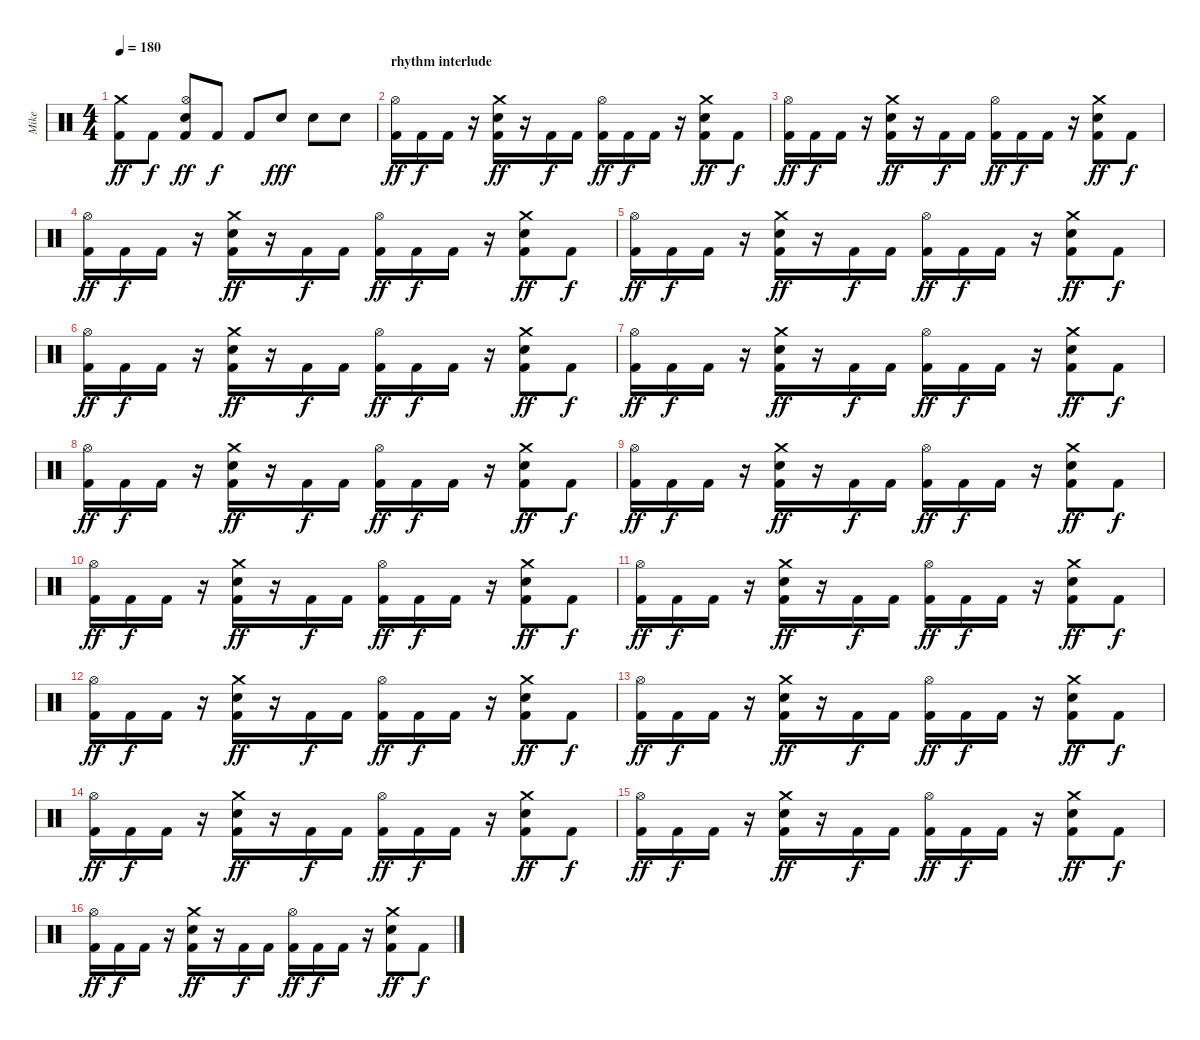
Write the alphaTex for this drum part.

\track ("Mike" "Mike") {instrument percussion}
\staff {score}
\articulation defaults
\ts (4 4)
\tempo 180
\clef neutral
\ks c
("Crash medium (hit)" "Kick (hit) 2").8{dy ff} "Kick (hit) 2".8{dy f} ("Hi-Hat (open)" "Snare (hit) 2" "Kick (hit) 2").8{dy ff} "Kick (hit) 2".8{dy f} "Kick (hit) 2".8 "Snare (hit) 2".8{dy fff} "Snare (hit) 2".8 "Snare (hit) 2".8 |
\section ("" "rhythm interlude")
("Hi-Hat (open)" "Kick (hit) 2").16{dy ff} "Kick (hit) 2".16{dy f} "Kick (hit) 2".16 r.16 ("Crash medium (hit)" "Snare (hit) 2" "Kick (hit) 2").16{dy ff} r.16 "Kick (hit) 2".16{dy f} "Kick (hit) 2".16 ("Hi-Hat (open)" "Kick (hit) 2").16{dy ff} "Kick (hit) 2".16{dy f} "Kick (hit) 2".16 r.16 ("Crash medium (hit)" "Snare (hit) 2" "Kick (hit) 2").8{dy ff} "Kick (hit) 2".8{dy f} |
("Hi-Hat (open)" "Kick (hit) 2").16{dy ff} "Kick (hit) 2".16{dy f} "Kick (hit) 2".16 r.16 ("Crash medium (hit)" "Snare (hit) 2" "Kick (hit) 2").16{dy ff} r.16 "Kick (hit) 2".16{dy f} "Kick (hit) 2".16 ("Hi-Hat (open)" "Kick (hit) 2").16{dy ff} "Kick (hit) 2".16{dy f} "Kick (hit) 2".16 r.16 ("Crash medium (hit)" "Snare (hit) 2" "Kick (hit) 2").8{dy ff} "Kick (hit) 2".8{dy f} |
("Hi-Hat (open)" "Kick (hit) 2").16{dy ff} "Kick (hit) 2".16{dy f} "Kick (hit) 2".16 r.16 ("Crash medium (hit)" "Snare (hit) 2" "Kick (hit) 2").16{dy ff} r.16 "Kick (hit) 2".16{dy f} "Kick (hit) 2".16 ("Hi-Hat (open)" "Kick (hit) 2").16{dy ff} "Kick (hit) 2".16{dy f} "Kick (hit) 2".16 r.16 ("Crash medium (hit)" "Snare (hit) 2" "Kick (hit) 2").8{dy ff} "Kick (hit) 2".8{dy f} |
("Hi-Hat (open)" "Kick (hit) 2").16{dy ff} "Kick (hit) 2".16{dy f} "Kick (hit) 2".16 r.16 ("Crash medium (hit)" "Snare (hit) 2" "Kick (hit) 2").16{dy ff} r.16 "Kick (hit) 2".16{dy f} "Kick (hit) 2".16 ("Hi-Hat (open)" "Kick (hit) 2").16{dy ff} "Kick (hit) 2".16{dy f} "Kick (hit) 2".16 r.16 ("Crash medium (hit)" "Snare (hit) 2" "Kick (hit) 2").8{dy ff} "Kick (hit) 2".8{dy f} |
("Hi-Hat (open)" "Kick (hit) 2").16{dy ff} "Kick (hit) 2".16{dy f} "Kick (hit) 2".16 r.16 ("Crash medium (hit)" "Snare (hit) 2" "Kick (hit) 2").16{dy ff} r.16 "Kick (hit) 2".16{dy f} "Kick (hit) 2".16 ("Hi-Hat (open)" "Kick (hit) 2").16{dy ff} "Kick (hit) 2".16{dy f} "Kick (hit) 2".16 r.16 ("Crash medium (hit)" "Snare (hit) 2" "Kick (hit) 2").8{dy ff} "Kick (hit) 2".8{dy f} |
("Hi-Hat (open)" "Kick (hit) 2").16{dy ff} "Kick (hit) 2".16{dy f} "Kick (hit) 2".16 r.16 ("Crash medium (hit)" "Snare (hit) 2" "Kick (hit) 2").16{dy ff} r.16 "Kick (hit) 2".16{dy f} "Kick (hit) 2".16 ("Hi-Hat (open)" "Kick (hit) 2").16{dy ff} "Kick (hit) 2".16{dy f} "Kick (hit) 2".16 r.16 ("Crash medium (hit)" "Snare (hit) 2" "Kick (hit) 2").8{dy ff} "Kick (hit) 2".8{dy f} |
("Hi-Hat (open)" "Kick (hit) 2").16{dy ff} "Kick (hit) 2".16{dy f} "Kick (hit) 2".16 r.16 ("Crash medium (hit)" "Snare (hit) 2" "Kick (hit) 2").16{dy ff} r.16 "Kick (hit) 2".16{dy f} "Kick (hit) 2".16 ("Hi-Hat (open)" "Kick (hit) 2").16{dy ff} "Kick (hit) 2".16{dy f} "Kick (hit) 2".16 r.16 ("Crash medium (hit)" "Snare (hit) 2" "Kick (hit) 2").8{dy ff} "Kick (hit) 2".8{dy f} |
("Hi-Hat (open)" "Kick (hit) 2").16{dy ff} "Kick (hit) 2".16{dy f} "Kick (hit) 2".16 r.16 ("Crash medium (hit)" "Snare (hit) 2" "Kick (hit) 2").16{dy ff} r.16 "Kick (hit) 2".16{dy f} "Kick (hit) 2".16 ("Hi-Hat (open)" "Kick (hit) 2").16{dy ff} "Kick (hit) 2".16{dy f} "Kick (hit) 2".16 r.16 ("Crash medium (hit)" "Snare (hit) 2" "Kick (hit) 2").8{dy ff} "Kick (hit) 2".8{dy f} |
("Hi-Hat (open)" "Kick (hit) 2").16{dy ff} "Kick (hit) 2".16{dy f} "Kick (hit) 2".16 r.16 ("Crash medium (hit)" "Snare (hit) 2" "Kick (hit) 2").16{dy ff} r.16 "Kick (hit) 2".16{dy f} "Kick (hit) 2".16 ("Hi-Hat (open)" "Kick (hit) 2").16{dy ff} "Kick (hit) 2".16{dy f} "Kick (hit) 2".16 r.16 ("Crash medium (hit)" "Snare (hit) 2" "Kick (hit) 2").8{dy ff} "Kick (hit) 2".8{dy f} |
("Hi-Hat (open)" "Kick (hit) 2").16{dy ff} "Kick (hit) 2".16{dy f} "Kick (hit) 2".16 r.16 ("Crash medium (hit)" "Snare (hit) 2" "Kick (hit) 2").16{dy ff} r.16 "Kick (hit) 2".16{dy f} "Kick (hit) 2".16 ("Hi-Hat (open)" "Kick (hit) 2").16{dy ff} "Kick (hit) 2".16{dy f} "Kick (hit) 2".16 r.16 ("Crash medium (hit)" "Snare (hit) 2" "Kick (hit) 2").8{dy ff} "Kick (hit) 2".8{dy f} |
("Hi-Hat (open)" "Kick (hit) 2").16{dy ff} "Kick (hit) 2".16{dy f} "Kick (hit) 2".16 r.16 ("Crash medium (hit)" "Snare (hit) 2" "Kick (hit) 2").16{dy ff} r.16 "Kick (hit) 2".16{dy f} "Kick (hit) 2".16 ("Hi-Hat (open)" "Kick (hit) 2").16{dy ff} "Kick (hit) 2".16{dy f} "Kick (hit) 2".16 r.16 ("Crash medium (hit)" "Snare (hit) 2" "Kick (hit) 2").8{dy ff} "Kick (hit) 2".8{dy f} |
("Hi-Hat (open)" "Kick (hit) 2").16{dy ff} "Kick (hit) 2".16{dy f} "Kick (hit) 2".16 r.16 ("Crash medium (hit)" "Snare (hit) 2" "Kick (hit) 2").16{dy ff} r.16 "Kick (hit) 2".16{dy f} "Kick (hit) 2".16 ("Hi-Hat (open)" "Kick (hit) 2").16{dy ff} "Kick (hit) 2".16{dy f} "Kick (hit) 2".16 r.16 ("Crash medium (hit)" "Snare (hit) 2" "Kick (hit) 2").8{dy ff} "Kick (hit) 2".8{dy f} |
("Hi-Hat (open)" "Kick (hit) 2").16{dy ff} "Kick (hit) 2".16{dy f} "Kick (hit) 2".16 r.16 ("Crash medium (hit)" "Snare (hit) 2" "Kick (hit) 2").16{dy ff} r.16 "Kick (hit) 2".16{dy f} "Kick (hit) 2".16 ("Hi-Hat (open)" "Kick (hit) 2").16{dy ff} "Kick (hit) 2".16{dy f} "Kick (hit) 2".16 r.16 ("Crash medium (hit)" "Snare (hit) 2" "Kick (hit) 2").8{dy ff} "Kick (hit) 2".8{dy f} |
("Hi-Hat (open)" "Kick (hit) 2").16{dy ff} "Kick (hit) 2".16{dy f} "Kick (hit) 2".16 r.16 ("Crash medium (hit)" "Snare (hit) 2" "Kick (hit) 2").16{dy ff} r.16 "Kick (hit) 2".16{dy f} "Kick (hit) 2".16 ("Hi-Hat (open)" "Kick (hit) 2").16{dy ff} "Kick (hit) 2".16{dy f} "Kick (hit) 2".16 r.16 ("Crash medium (hit)" "Snare (hit) 2" "Kick (hit) 2").8{dy ff} "Kick (hit) 2".8{dy f} |
("Hi-Hat (open)" "Kick (hit) 2").16{dy ff} "Kick (hit) 2".16{dy f} "Kick (hit) 2".16 r.16 ("Crash medium (hit)" "Snare (hit) 2" "Kick (hit) 2").16{dy ff} r.16 "Kick (hit) 2".16{dy f} "Kick (hit) 2".16 ("Hi-Hat (open)" "Kick (hit) 2").16{dy ff} "Kick (hit) 2".16{dy f} "Kick (hit) 2".16 r.16 ("Crash medium (hit)" "Snare (hit) 2" "Kick (hit) 2").8{dy ff} "Kick (hit) 2".8{dy f}
